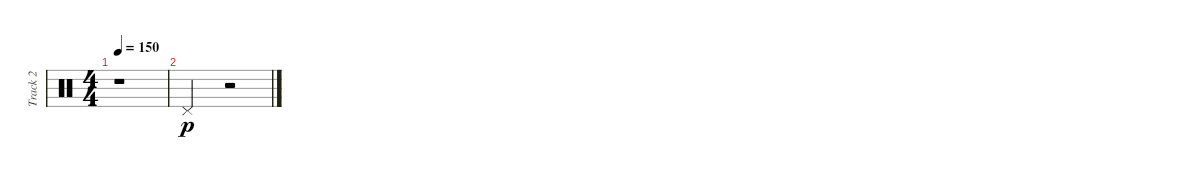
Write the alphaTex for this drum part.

\track ("Track 2" "Track 2") {instrument percussion}
\staff {score}
\articulation defaults
\ts (4 4)
\tempo 150
\clef neutral
\ks c
r.1{dy ff} |
"Pedal Hi-Hat (hit)".2{dy p} r.2
